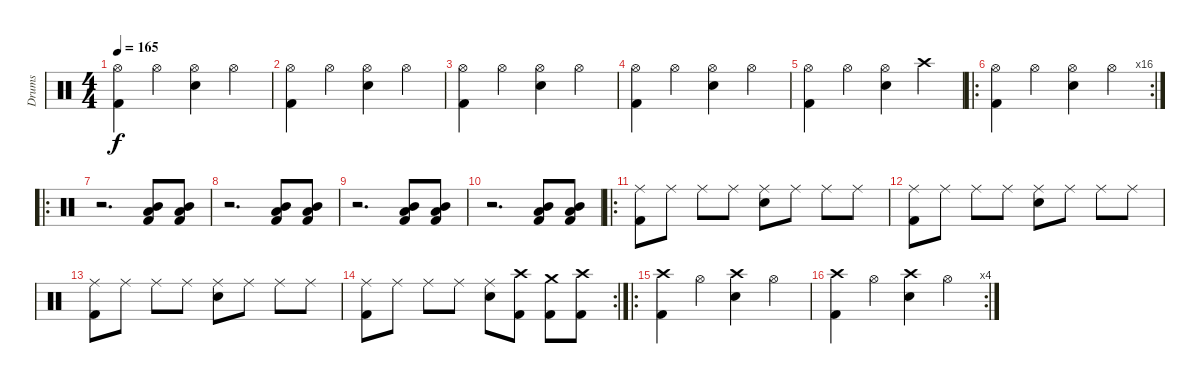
\track ("Drums" "Drums") {instrument percussion}
\staff {score}
\articulation defaults
\ts (4 4)
\tempo 165
\clef neutral
\ks c
("Hi-Hat (open)" "Kick (hit) 2").4{dy f} "Hi-Hat (open)".4 ("Hi-Hat (open)" "Electric Snare (hit)").4 "Hi-Hat (open)".4 |
("Hi-Hat (open)" "Kick (hit) 2").4 "Hi-Hat (open)".4 ("Hi-Hat (open)" "Electric Snare (hit)").4 "Hi-Hat (open)".4 |
("Hi-Hat (open)" "Kick (hit) 2").4 "Hi-Hat (open)".4 ("Hi-Hat (open)" "Electric Snare (hit)").4 "Hi-Hat (open)".4 |
("Hi-Hat (open)" "Kick (hit) 2").4 "Hi-Hat (open)".4 ("Hi-Hat (open)" "Electric Snare (hit)").4 "Hi-Hat (open)".4 |
("Hi-Hat (open)" "Kick (hit) 2").4 "Hi-Hat (open)".4 ("Hi-Hat (open)" "Electric Snare (hit)").4 "Crash high (hit)".4 |
\ro
\rc 16
("Hi-Hat (open)" "Kick (hit) 2").4 "Hi-Hat (open)".4 ("Hi-Hat (open)" "Electric Snare (hit)").4 "Hi-Hat (open)".4 |
\ro
r.2{d} ("Low Tom (hit)" "Mid Tom (hit)" "Kick (hit) 2").8 ("Low Tom (hit)" "Mid Tom (hit)" "Kick (hit) 2").8 |
r.2{d} ("Low Tom (hit)" "Mid Tom (hit)" "Kick (hit) 2").8 ("Low Tom (hit)" "Mid Tom (hit)" "Kick (hit) 2").8 |
r.2{d} ("Low Tom (hit)" "Mid Tom (hit)" "Kick (hit) 2").8 ("Low Tom (hit)" "Mid Tom (hit)" "Kick (hit) 2").8 |
r.2{d} ("Low Tom (hit)" "Mid Tom (hit)" "Kick (hit) 2").8 ("Low Tom (hit)" "Mid Tom (hit)" "Kick (hit) 2").8 |
\ro
("Ride (middle)" "Kick (hit) 2").8 "Ride (middle)".8 "Ride (middle)".8 "Ride (middle)".8 ("Ride (middle)" "Electric Snare (hit)").8 "Ride (middle)".8 "Ride (middle)".8 "Ride (middle)".8 |
("Ride (middle)" "Kick (hit) 2").8 "Ride (middle)".8 "Ride (middle)".8 "Ride (middle)".8 ("Ride (middle)" "Electric Snare (hit)").8 "Ride (middle)".8 "Ride (middle)".8 "Ride (middle)".8 |
("Ride (middle)" "Kick (hit) 2").8 "Ride (middle)".8 "Ride (middle)".8 "Ride (middle)".8 ("Ride (middle)" "Electric Snare (hit)").8 "Ride (middle)".8 "Ride (middle)".8 "Ride (middle)".8 |
\rc 2
("Ride (middle)" "Kick (hit) 2").8 "Ride (middle)".8 "Ride (middle)".8 "Ride (middle)".8 ("Ride (middle)" "Electric Snare (hit)").8 ("Crash high (hit)" "Kick (hit) 2").8 ("Crash medium (hit)" "Kick (hit) 2").8 ("Crash high (hit)" "Kick (hit) 2").8 |
\ro
("Crash high (hit)" "Kick (hit) 2").4 "Hi-Hat (open)".4 ("Crash high (hit)" "Electric Snare (hit)").4 "Hi-Hat (open)".4 |
\rc 4
("Crash high (hit)" "Kick (hit) 2").4 "Hi-Hat (open)".4 ("Crash high (hit)" "Electric Snare (hit)").4 "Hi-Hat (open)".4
